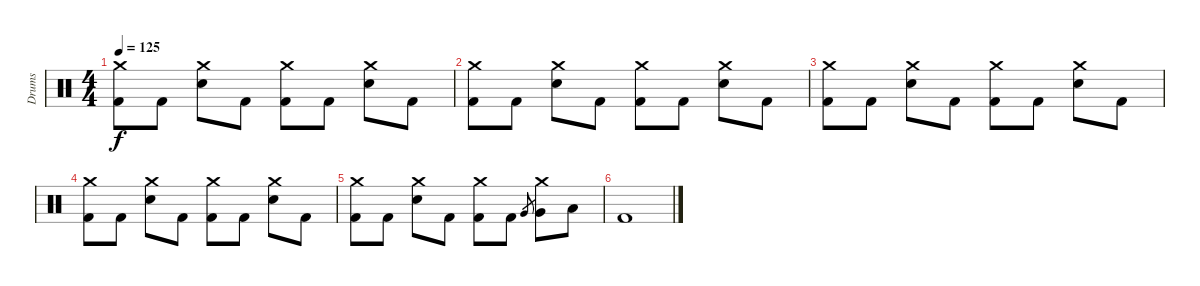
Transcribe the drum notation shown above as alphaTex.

\track ("Drums" "Drums") {instrument percussion}
\staff {score}
\articulation defaults
\ts (4 4)
\tempo 125
\clef neutral
\ks c
("Crash medium (hit)" "Kick (hit) 2").8{dy f} "Kick (hit) 2".8 ("Crash medium (hit)" "Electric Snare (hit)").8 "Kick (hit) 2".8 ("Crash medium (hit)" "Kick (hit) 2").8 "Kick (hit) 2".8 ("Crash medium (hit)" "Electric Snare (hit)").8 "Kick (hit) 2".8 |
("Crash medium (hit)" "Kick (hit) 2").8 "Kick (hit) 2".8 ("Crash medium (hit)" "Electric Snare (hit)").8 "Kick (hit) 2".8 ("Crash medium (hit)" "Kick (hit) 2").8 "Kick (hit) 2".8 ("Crash medium (hit)" "Electric Snare (hit)").8 "Kick (hit) 2".8 |
("Crash medium (hit)" "Kick (hit) 2").8 "Kick (hit) 2".8 ("Crash medium (hit)" "Electric Snare (hit)").8 "Kick (hit) 2".8 ("Crash medium (hit)" "Kick (hit) 2").8 "Kick (hit) 2".8 ("Crash medium (hit)" "Electric Snare (hit)").8 "Kick (hit) 2".8 |
("Crash medium (hit)" "Kick (hit) 2").8 "Kick (hit) 2".8 ("Crash medium (hit)" "Electric Snare (hit)").8 "Kick (hit) 2".8 ("Crash medium (hit)" "Kick (hit) 2").8 "Kick (hit) 2".8 ("Crash medium (hit)" "Electric Snare (hit)").8 "Kick (hit) 2".8 |
("Crash medium (hit)" "Kick (hit) 2").8 "Kick (hit) 2".8 ("Crash medium (hit)" "Electric Snare (hit)").8 "Kick (hit) 2".8 ("Crash medium (hit)" "Kick (hit) 2").8 "Kick (hit) 2".8 "Very Low Tom (hit)".8{gr} ("Crash medium (hit)" "Very Low Tom (hit)").8 "Low Floor Tom (hit)".8 |
"Kick (hit) 2".1
